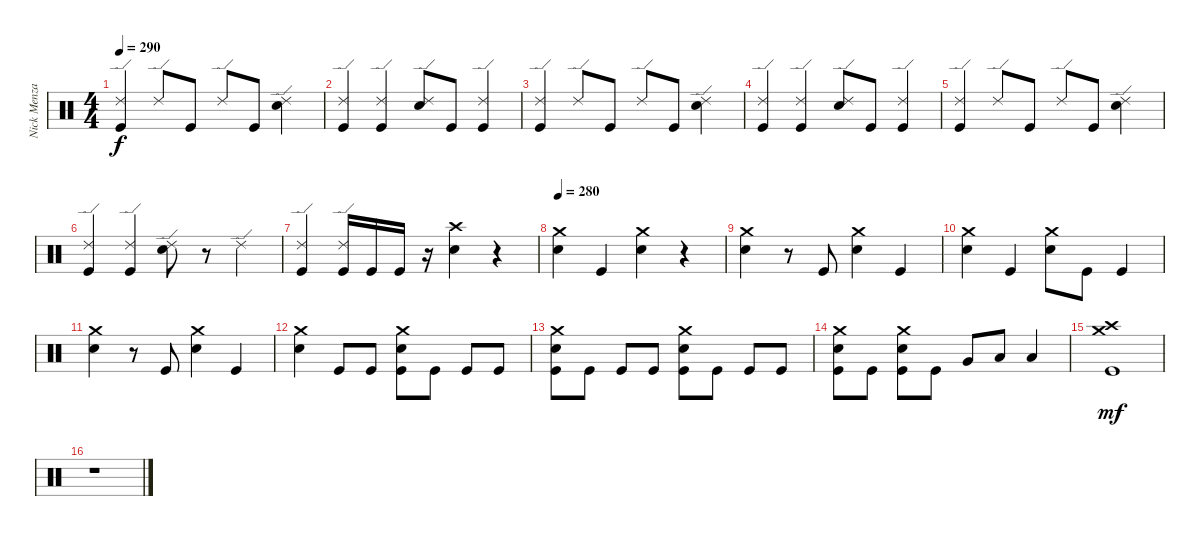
\track ("Nick Menza" "Nick Menza") {instrument percussion}
\staff {score}
\articulation defaults
\ts (4 4)
\tempo 290
\clef neutral
\ks c
("Ride (edge) 2" "Kick (hit)").4{dy f} "Ride (edge) 2".8 "Kick (hit)".8 "Ride (edge) 2".8 "Kick (hit)".8 ("Ride (edge) 2" "Snare (hit) 2").4 |
("Ride (edge) 2" "Kick (hit)").4 ("Ride (edge) 2" "Kick (hit)").4 ("Ride (edge) 2" "Snare (hit) 2").8 "Kick (hit)".8 ("Ride (edge) 2" "Kick (hit)").4 |
("Ride (edge) 2" "Kick (hit)").4 "Ride (edge) 2".8 "Kick (hit)".8 "Ride (edge) 2".8 "Kick (hit)".8 ("Ride (edge) 2" "Snare (hit) 2").4 |
("Ride (edge) 2" "Kick (hit)").4 ("Ride (edge) 2" "Kick (hit)").4 ("Ride (edge) 2" "Snare (hit) 2").8 "Kick (hit)".8 ("Ride (edge) 2" "Kick (hit)").4 |
("Ride (edge) 2" "Kick (hit)").4 "Ride (edge) 2".8 "Kick (hit)".8 "Ride (edge) 2".8 "Kick (hit)".8 ("Ride (edge) 2" "Snare (hit) 2").4 |
("Ride (edge) 2" "Kick (hit)").4 ("Ride (edge) 2" "Kick (hit)").4 ("Ride (edge) 2" "Snare (hit) 2").8 r.8 "Ride (edge) 2".4 |
("Ride (edge) 2" "Kick (hit)").4 ("Ride (edge) 2" "Kick (hit)").16 "Kick (hit)".16 "Kick (hit)".16 r.16 ("Crash high (hit)" "Snare (hit) 2").4 r.4 |
\tempo 280
("Crash medium (hit)" "Snare (hit) 2").4 "Kick (hit)".4 ("Crash medium (hit)" "Snare (hit) 2").4 r.4 |
("Crash medium (hit)" "Snare (hit) 2").4 r.8 "Kick (hit)".8 ("Crash medium (hit)" "Snare (hit) 2").4 "Kick (hit)".4 |
("Crash medium (hit)" "Snare (hit) 2").4 "Kick (hit)".4 ("Crash medium (hit)" "Snare (hit) 2").8 "Kick (hit)".8 "Kick (hit)".4 |
("Crash medium (hit)" "Snare (hit) 2").4 r.8 "Kick (hit)".8 ("Crash medium (hit)" "Snare (hit) 2").4 "Kick (hit)".4 |
("Crash medium (hit)" "Snare (hit) 2").4 "Kick (hit)".8 "Kick (hit)".8 ("Crash medium (hit)" "Snare (hit) 2" "Kick (hit)").8 "Kick (hit)".8 "Kick (hit)".8 "Kick (hit)".8 |
("Crash medium (hit)" "Snare (hit) 2" "Kick (hit)").8 "Kick (hit)".8 "Kick (hit)".8 "Kick (hit)".8 ("Crash medium (hit)" "Snare (hit) 2" "Kick (hit)").8 "Kick (hit)".8 "Kick (hit)".8 "Kick (hit)".8 |
("Crash medium (hit)" "Snare (hit) 2" "Kick (hit)").8 "Kick (hit)".8 ("Crash medium (hit)" "Snare (hit) 2" "Kick (hit)").8 "Kick (hit)".8 "Very Low Tom (hit)".8 "Low Floor Tom (hit)".8 "Low Floor Tom (hit)".4 |
("Crash high (hit)" "Crash medium (hit)" "Kick (hit)").1{dy mf} |
r.1
